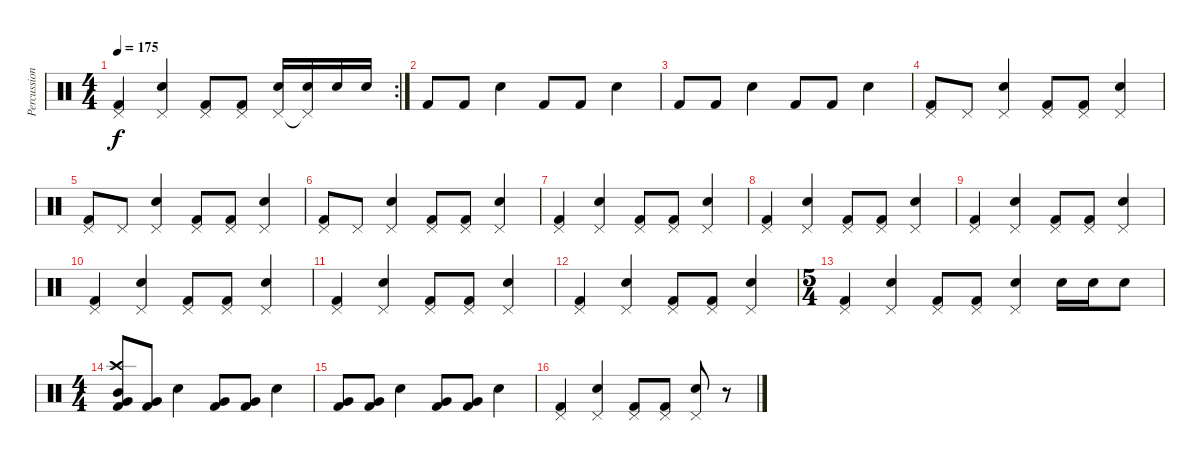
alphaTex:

\track ("Percussion" "Percussion") {instrument percussion}
\staff {score}
\articulation defaults
\rc 2
\ts (4 4)
\tempo 175
\clef neutral
\ks c
("Pedal Hi-Hat (hit)" "Kick (hit) 2").4{dy f} ("Pedal Hi-Hat (hit)" "Snare (hit) 2").4 ("Pedal Hi-Hat (hit)" "Kick (hit) 2").8 ("Pedal Hi-Hat (hit)" "Kick (hit) 2").8 ("Pedal Hi-Hat (hit)" "Snare (hit) 2").16 ("Pedal Hi-Hat (hit)"{t} "Snare (hit) 2").16 "Snare (hit) 2".16 "Snare (hit) 2".16 |
"Kick (hit) 2".8 "Kick (hit) 2".8 "Snare (hit) 2".4 "Kick (hit) 2".8 "Kick (hit) 2".8 "Snare (hit) 2".4 |
"Kick (hit) 2".8 "Kick (hit) 2".8 "Snare (hit) 2".4 "Kick (hit) 2".8 "Kick (hit) 2".8 "Snare (hit) 2".4 |
("Pedal Hi-Hat (hit)" "Kick (hit) 2").8 "Pedal Hi-Hat (hit)".8 ("Pedal Hi-Hat (hit)" "Snare (hit) 2").4 ("Pedal Hi-Hat (hit)" "Kick (hit) 2").8 ("Pedal Hi-Hat (hit)" "Kick (hit) 2").8 ("Pedal Hi-Hat (hit)" "Snare (hit) 2").4 |
("Pedal Hi-Hat (hit)" "Kick (hit) 2").8 "Pedal Hi-Hat (hit)".8 ("Pedal Hi-Hat (hit)" "Snare (hit) 2").4 ("Pedal Hi-Hat (hit)" "Kick (hit) 2").8 ("Pedal Hi-Hat (hit)" "Kick (hit) 2").8 ("Pedal Hi-Hat (hit)" "Snare (hit) 2").4 |
("Pedal Hi-Hat (hit)" "Kick (hit) 2").8 "Pedal Hi-Hat (hit)".8 ("Pedal Hi-Hat (hit)" "Snare (hit) 2").4 ("Pedal Hi-Hat (hit)" "Kick (hit) 2").8 ("Pedal Hi-Hat (hit)" "Kick (hit) 2").8 ("Pedal Hi-Hat (hit)" "Snare (hit) 2").4 |
("Pedal Hi-Hat (hit)" "Kick (hit) 2").4 ("Pedal Hi-Hat (hit)" "Snare (hit) 2").4 ("Pedal Hi-Hat (hit)" "Kick (hit) 2").8 ("Pedal Hi-Hat (hit)" "Kick (hit) 2").8 ("Pedal Hi-Hat (hit)" "Snare (hit) 2").4 |
("Pedal Hi-Hat (hit)" "Kick (hit) 2").4 ("Pedal Hi-Hat (hit)" "Snare (hit) 2").4 ("Pedal Hi-Hat (hit)" "Kick (hit) 2").8 ("Pedal Hi-Hat (hit)" "Kick (hit) 2").8 ("Pedal Hi-Hat (hit)" "Snare (hit) 2").4 |
("Pedal Hi-Hat (hit)" "Kick (hit) 2").4 ("Pedal Hi-Hat (hit)" "Snare (hit) 2").4 ("Pedal Hi-Hat (hit)" "Kick (hit) 2").8 ("Pedal Hi-Hat (hit)" "Kick (hit) 2").8 ("Pedal Hi-Hat (hit)" "Snare (hit) 2").4 |
("Pedal Hi-Hat (hit)" "Kick (hit) 2").4 ("Pedal Hi-Hat (hit)" "Snare (hit) 2").4 ("Pedal Hi-Hat (hit)" "Kick (hit) 2").8 ("Pedal Hi-Hat (hit)" "Kick (hit) 2").8 ("Pedal Hi-Hat (hit)" "Snare (hit) 2").4 |
("Pedal Hi-Hat (hit)" "Kick (hit) 2").4 ("Pedal Hi-Hat (hit)" "Snare (hit) 2").4 ("Pedal Hi-Hat (hit)" "Kick (hit) 2").8 ("Pedal Hi-Hat (hit)" "Kick (hit) 2").8 ("Pedal Hi-Hat (hit)" "Snare (hit) 2").4 |
("Pedal Hi-Hat (hit)" "Kick (hit) 2").4 ("Pedal Hi-Hat (hit)" "Snare (hit) 2").4 ("Pedal Hi-Hat (hit)" "Kick (hit) 2").8 ("Pedal Hi-Hat (hit)" "Kick (hit) 2").8 ("Pedal Hi-Hat (hit)" "Snare (hit) 2").4 |
\ts (5 4)
("Pedal Hi-Hat (hit)" "Kick (hit) 2").4 ("Pedal Hi-Hat (hit)" "Snare (hit) 2").4 ("Pedal Hi-Hat (hit)" "Kick (hit) 2").8 ("Pedal Hi-Hat (hit)" "Kick (hit) 2").8 ("Pedal Hi-Hat (hit)" "Snare (hit) 2").4 "Snare (hit) 2".16 "Snare (hit) 2".16 "Snare (hit) 2".8 |
\ts (4 4)
("Crash high (hit)" "Mid Tom (hit)" "Very Low Tom (hit)" "Kick (hit) 2").8 ("Very Low Tom (hit)" "Kick (hit) 2").8 "Snare (hit) 2".4 ("Very Low Tom (hit)" "Kick (hit) 2").8 ("Very Low Tom (hit)" "Kick (hit) 2").8 "Snare (hit) 2".4 |
("Very Low Tom (hit)" "Kick (hit) 2").8 ("Very Low Tom (hit)" "Kick (hit) 2").8 "Snare (hit) 2".4 ("Very Low Tom (hit)" "Kick (hit) 2").8 ("Very Low Tom (hit)" "Kick (hit) 2").8 "Snare (hit) 2".4 |
("Pedal Hi-Hat (hit)" "Kick (hit) 2").4 ("Pedal Hi-Hat (hit)" "Snare (hit) 2").4 ("Pedal Hi-Hat (hit)" "Kick (hit) 2").8 ("Pedal Hi-Hat (hit)" "Kick (hit) 2").8 ("Pedal Hi-Hat (hit)" "Snare (hit) 2").8 r.8
